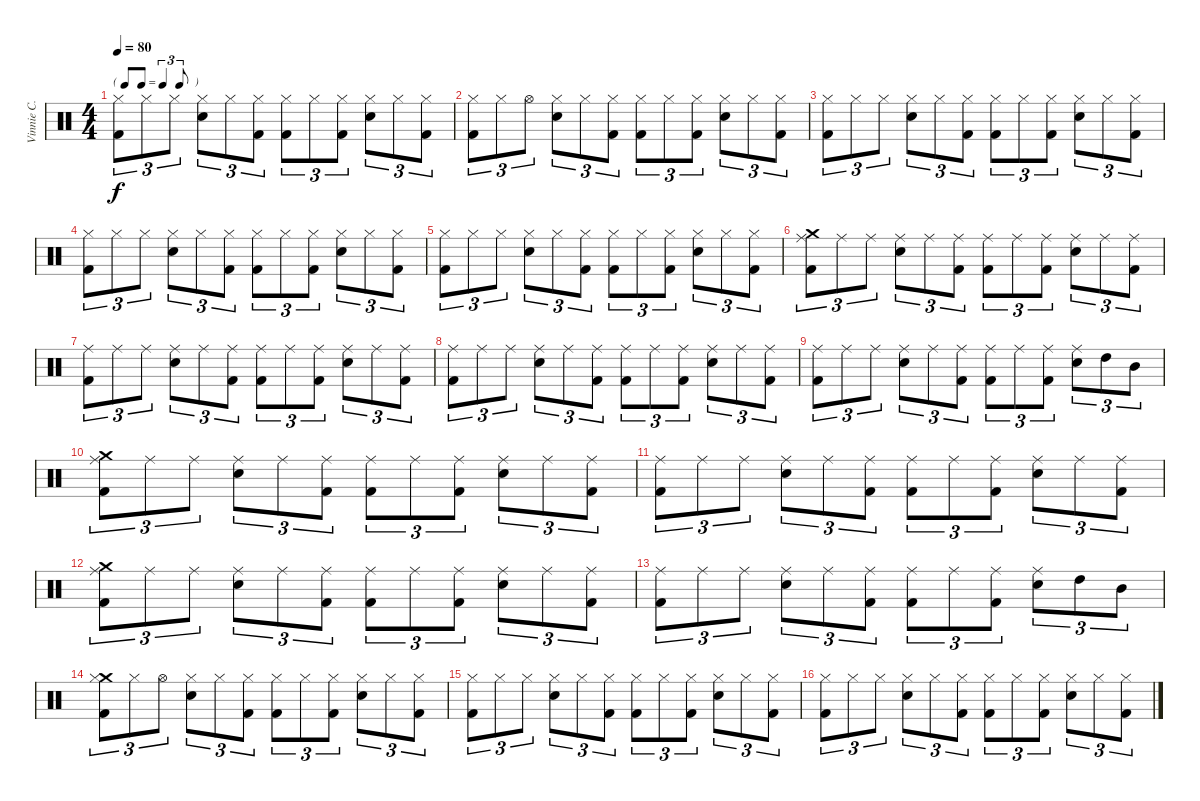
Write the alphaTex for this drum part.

\track ("Vinnie C." "Vinnie C.") {instrument percussion}
\staff {score}
\articulation defaults
\ts (4 4)
\tf triplet8th
\tempo 80
\clef neutral
\ks c
("Hi-Hat (closed)" "Kick (hit) 2").8{tu (3 2) dy f} "Hi-Hat (closed)".8{tu (3 2)} "Hi-Hat (closed)".8{tu (3 2)} ("Hi-Hat (closed)" "Electric Snare (hit)").8{tu (3 2)} "Hi-Hat (closed)".8{tu (3 2)} ("Hi-Hat (closed)" "Kick (hit) 2").8{tu (3 2)} ("Hi-Hat (closed)" "Kick (hit) 2").8{tu (3 2)} "Hi-Hat (closed)".8{tu (3 2)} ("Hi-Hat (closed)" "Kick (hit) 2").8{tu (3 2)} ("Hi-Hat (closed)" "Electric Snare (hit)").8{tu (3 2) beam merge} "Hi-Hat (closed)".8{tu (3 2) beam merge} ("Hi-Hat (closed)" "Kick (hit) 2").8{tu (3 2)} |
("Hi-Hat (closed)" "Kick (hit) 2").8{tu (3 2)} "Hi-Hat (closed)".8{tu (3 2)} "Hi-Hat (open)".8{tu (3 2)} ("Hi-Hat (closed)" "Electric Snare (hit)").8{tu (3 2)} "Hi-Hat (closed)".8{tu (3 2)} ("Hi-Hat (closed)" "Kick (hit) 2").8{tu (3 2)} ("Hi-Hat (closed)" "Kick (hit) 2").8{tu (3 2)} "Hi-Hat (closed)".8{tu (3 2)} ("Hi-Hat (closed)" "Kick (hit) 2").8{tu (3 2)} ("Hi-Hat (closed)" "Electric Snare (hit)").8{tu (3 2) beam merge} "Hi-Hat (closed)".8{tu (3 2) beam merge} ("Hi-Hat (closed)" "Kick (hit) 2").8{tu (3 2)} |
("Hi-Hat (closed)" "Kick (hit) 2").8{tu (3 2)} "Hi-Hat (closed)".8{tu (3 2)} "Hi-Hat (closed)".8{tu (3 2)} ("Hi-Hat (closed)" "Electric Snare (hit)").8{tu (3 2)} "Hi-Hat (closed)".8{tu (3 2)} ("Hi-Hat (closed)" "Kick (hit) 2").8{tu (3 2)} ("Hi-Hat (closed)" "Kick (hit) 2").8{tu (3 2)} "Hi-Hat (closed)".8{tu (3 2)} ("Hi-Hat (closed)" "Kick (hit) 2").8{tu (3 2)} ("Hi-Hat (closed)" "Electric Snare (hit)").8{tu (3 2) beam merge} "Hi-Hat (closed)".8{tu (3 2) beam merge} ("Hi-Hat (closed)" "Kick (hit) 2").8{tu (3 2)} |
("Hi-Hat (closed)" "Kick (hit) 2").8{tu (3 2)} "Hi-Hat (closed)".8{tu (3 2)} "Hi-Hat (closed)".8{tu (3 2)} ("Hi-Hat (closed)" "Electric Snare (hit)").8{tu (3 2)} "Hi-Hat (closed)".8{tu (3 2)} ("Hi-Hat (closed)" "Kick (hit) 2").8{tu (3 2)} ("Hi-Hat (closed)" "Kick (hit) 2").8{tu (3 2)} "Hi-Hat (closed)".8{tu (3 2)} ("Hi-Hat (closed)" "Kick (hit) 2").8{tu (3 2)} ("Hi-Hat (closed)" "Electric Snare (hit)").8{tu (3 2) beam merge} "Hi-Hat (closed)".8{tu (3 2) beam merge} ("Hi-Hat (closed)" "Kick (hit) 2").8{tu (3 2)} |
("Hi-Hat (closed)" "Kick (hit) 2").8{tu (3 2)} "Hi-Hat (closed)".8{tu (3 2)} "Hi-Hat (closed)".8{tu (3 2)} ("Hi-Hat (closed)" "Electric Snare (hit)").8{tu (3 2)} "Hi-Hat (closed)".8{tu (3 2)} ("Hi-Hat (closed)" "Kick (hit) 2").8{tu (3 2)} ("Hi-Hat (closed)" "Kick (hit) 2").8{tu (3 2)} "Hi-Hat (closed)".8{tu (3 2)} ("Hi-Hat (closed)" "Kick (hit) 2").8{tu (3 2)} ("Hi-Hat (closed)" "Electric Snare (hit)").8{tu (3 2) beam merge} "Hi-Hat (closed)".8{tu (3 2) beam merge} ("Hi-Hat (closed)" "Kick (hit) 2").8{tu (3 2)} |
("Crash medium (hit)" "Ride (middle)" "Kick (hit) 2").8{tu (3 2) beam merge} "Ride (middle)".8{tu (3 2) beam merge} "Ride (middle)".8{tu (3 2)} ("Ride (middle)" "Electric Snare (hit)").8{tu (3 2) beam merge} "Ride (middle)".8{tu (3 2)} ("Ride (middle)" "Kick (hit) 2").8{tu (3 2)} ("Ride (middle)" "Kick (hit) 2").8{tu (3 2)} "Ride (middle)".8{tu (3 2) beam merge} ("Ride (middle)" "Kick (hit) 2").8{tu (3 2)} ("Ride (middle)" "Electric Snare (hit)").8{tu (3 2)} "Ride (middle)".8{tu (3 2)} ("Ride (middle)" "Kick (hit) 2").8{tu (3 2)} |
("Ride (middle)" "Kick (hit) 2").8{tu (3 2) beam merge} "Ride (middle)".8{tu (3 2) beam merge} "Ride (middle)".8{tu (3 2)} ("Ride (middle)" "Electric Snare (hit)").8{tu (3 2) beam merge} "Ride (middle)".8{tu (3 2)} ("Ride (middle)" "Kick (hit) 2").8{tu (3 2)} ("Ride (middle)" "Kick (hit) 2").8{tu (3 2)} "Ride (middle)".8{tu (3 2) beam merge} ("Ride (middle)" "Kick (hit) 2").8{tu (3 2)} ("Ride (middle)" "Electric Snare (hit)").8{tu (3 2)} "Ride (middle)".8{tu (3 2)} ("Ride (middle)" "Kick (hit) 2").8{tu (3 2)} |
("Ride (middle)" "Kick (hit) 2").8{tu (3 2) beam merge} "Ride (middle)".8{tu (3 2) beam merge} "Ride (middle)".8{tu (3 2)} ("Ride (middle)" "Electric Snare (hit)").8{tu (3 2) beam merge} "Ride (middle)".8{tu (3 2)} ("Ride (middle)" "Kick (hit) 2").8{tu (3 2)} ("Ride (middle)" "Kick (hit) 2").8{tu (3 2)} "Ride (middle)".8{tu (3 2) beam merge} ("Ride (middle)" "Kick (hit) 2").8{tu (3 2)} ("Ride (middle)" "Electric Snare (hit)").8{tu (3 2)} "Ride (middle)".8{tu (3 2)} ("Ride (middle)" "Kick (hit) 2").8{tu (3 2)} |
("Ride (middle)" "Kick (hit) 2").8{tu (3 2) beam merge} "Ride (middle)".8{tu (3 2) beam merge} "Ride (middle)".8{tu (3 2)} ("Ride (middle)" "Electric Snare (hit)").8{tu (3 2) beam merge} "Ride (middle)".8{tu (3 2)} ("Ride (middle)" "Kick (hit) 2").8{tu (3 2)} ("Ride (middle)" "Kick (hit) 2").8{tu (3 2)} "Ride (middle)".8{tu (3 2) beam merge} ("Ride (middle)" "Kick (hit) 2").8{tu (3 2)} ("Ride (middle)" "Electric Snare (hit)").8{tu (3 2)} "High Tom (hit)".8{tu (3 2)} "Mid Tom (hit)".8{tu (3 2)} |
("Crash medium (hit)" "Ride (middle)" "Kick (hit) 2").8{tu (3 2) beam merge} "Ride (middle)".8{tu (3 2) beam merge} "Ride (middle)".8{tu (3 2)} ("Ride (middle)" "Electric Snare (hit)").8{tu (3 2) beam merge} "Ride (middle)".8{tu (3 2)} ("Ride (middle)" "Kick (hit) 2").8{tu (3 2)} ("Ride (middle)" "Kick (hit) 2").8{tu (3 2)} "Ride (middle)".8{tu (3 2) beam merge} ("Ride (middle)" "Kick (hit) 2").8{tu (3 2)} ("Ride (middle)" "Electric Snare (hit)").8{tu (3 2)} "Ride (middle)".8{tu (3 2)} ("Ride (middle)" "Kick (hit) 2").8{tu (3 2)} |
("Ride (middle)" "Kick (hit) 2").8{tu (3 2) beam merge} "Ride (middle)".8{tu (3 2) beam merge} "Ride (middle)".8{tu (3 2)} ("Ride (middle)" "Electric Snare (hit)").8{tu (3 2) beam merge} "Ride (middle)".8{tu (3 2)} ("Ride (middle)" "Kick (hit) 2").8{tu (3 2)} ("Ride (middle)" "Kick (hit) 2").8{tu (3 2)} "Ride (middle)".8{tu (3 2) beam merge} ("Ride (middle)" "Kick (hit) 2").8{tu (3 2)} ("Ride (middle)" "Electric Snare (hit)").8{tu (3 2)} "Ride (middle)".8{tu (3 2)} ("Ride (middle)" "Kick (hit) 2").8{tu (3 2)} |
("Crash medium (hit)" "Ride (middle)" "Kick (hit) 2").8{tu (3 2) beam merge} "Ride (middle)".8{tu (3 2) beam merge} "Ride (middle)".8{tu (3 2)} ("Ride (middle)" "Electric Snare (hit)").8{tu (3 2) beam merge} "Ride (middle)".8{tu (3 2)} ("Ride (middle)" "Kick (hit) 2").8{tu (3 2)} ("Ride (middle)" "Kick (hit) 2").8{tu (3 2)} "Ride (middle)".8{tu (3 2) beam merge} ("Ride (middle)" "Kick (hit) 2").8{tu (3 2)} ("Ride (middle)" "Electric Snare (hit)").8{tu (3 2)} "Ride (middle)".8{tu (3 2)} ("Ride (middle)" "Kick (hit) 2").8{tu (3 2)} |
("Ride (middle)" "Kick (hit) 2").8{tu (3 2) beam merge} "Ride (middle)".8{tu (3 2) beam merge} "Ride (middle)".8{tu (3 2)} ("Ride (middle)" "Electric Snare (hit)").8{tu (3 2) beam merge} "Ride (middle)".8{tu (3 2)} ("Ride (middle)" "Kick (hit) 2").8{tu (3 2)} ("Ride (middle)" "Kick (hit) 2").8{tu (3 2)} "Ride (middle)".8{tu (3 2) beam merge} ("Ride (middle)" "Kick (hit) 2").8{tu (3 2)} ("Ride (middle)" "Electric Snare (hit)").8{tu (3 2)} "High Tom (hit)".8{tu (3 2)} "Mid Tom (hit)".8{tu (3 2)} |
("Crash medium (hit)" "Hi-Hat (closed)" "Kick (hit) 2").8{tu (3 2)} "Hi-Hat (closed)".8{tu (3 2)} "Hi-Hat (open)".8{tu (3 2)} ("Hi-Hat (closed)" "Electric Snare (hit)").8{tu (3 2)} "Hi-Hat (closed)".8{tu (3 2)} ("Hi-Hat (closed)" "Kick (hit) 2").8{tu (3 2)} ("Hi-Hat (closed)" "Kick (hit) 2").8{tu (3 2)} "Hi-Hat (closed)".8{tu (3 2)} ("Hi-Hat (closed)" "Kick (hit) 2").8{tu (3 2)} ("Hi-Hat (closed)" "Electric Snare (hit)").8{tu (3 2) beam merge} "Hi-Hat (closed)".8{tu (3 2) beam merge} ("Hi-Hat (closed)" "Kick (hit) 2").8{tu (3 2)} |
("Hi-Hat (closed)" "Kick (hit) 2").8{tu (3 2)} "Hi-Hat (closed)".8{tu (3 2)} "Hi-Hat (closed)".8{tu (3 2)} ("Hi-Hat (closed)" "Electric Snare (hit)").8{tu (3 2)} "Hi-Hat (closed)".8{tu (3 2)} ("Hi-Hat (closed)" "Kick (hit) 2").8{tu (3 2)} ("Hi-Hat (closed)" "Kick (hit) 2").8{tu (3 2)} "Hi-Hat (closed)".8{tu (3 2)} ("Hi-Hat (closed)" "Kick (hit) 2").8{tu (3 2)} ("Hi-Hat (closed)" "Electric Snare (hit)").8{tu (3 2) beam merge} "Hi-Hat (closed)".8{tu (3 2) beam merge} ("Hi-Hat (closed)" "Kick (hit) 2").8{tu (3 2)} |
("Hi-Hat (closed)" "Kick (hit) 2").8{tu (3 2)} "Hi-Hat (closed)".8{tu (3 2)} "Hi-Hat (closed)".8{tu (3 2)} ("Hi-Hat (closed)" "Electric Snare (hit)").8{tu (3 2)} "Hi-Hat (closed)".8{tu (3 2)} ("Hi-Hat (closed)" "Kick (hit) 2").8{tu (3 2)} ("Hi-Hat (closed)" "Kick (hit) 2").8{tu (3 2)} "Hi-Hat (closed)".8{tu (3 2)} ("Hi-Hat (closed)" "Kick (hit) 2").8{tu (3 2)} ("Hi-Hat (closed)" "Electric Snare (hit)").8{tu (3 2) beam merge} "Hi-Hat (closed)".8{tu (3 2) beam merge} ("Hi-Hat (closed)" "Kick (hit) 2").8{tu (3 2)}
